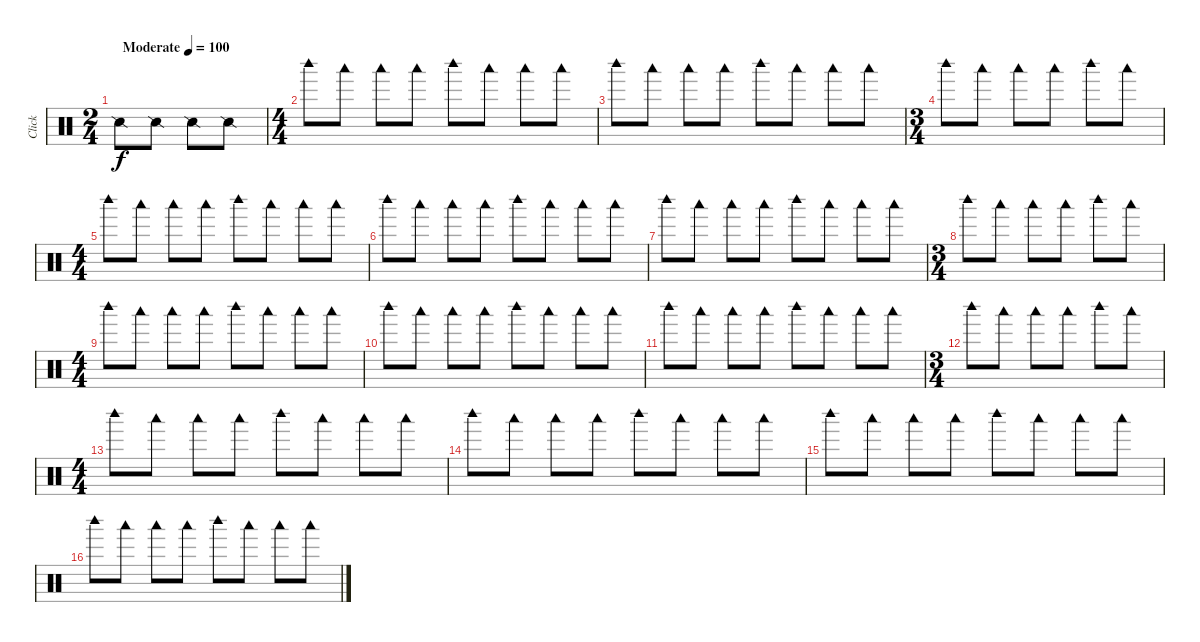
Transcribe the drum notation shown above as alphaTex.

\track ("Click" "Click") {mute instrument percussion}
\staff {score}
\articulation defaults
\ts (2 4)
\tempo (100 "Moderate")
\clef neutral
\ks c "Snare (side stick) 2".8{dy f} "Snare (side stick) 2".8 "Snare (side stick) 2".8 "Snare (side stick) 2".8
|
\ts (4 4)
"Woodblock high (hit)".8 "Woodblock low (hit)".8 "Woodblock low (hit)".8 "Woodblock low (hit)".8 "Woodblock high (hit)".8 "Woodblock low (hit)".8 "Woodblock low (hit)".8 "Woodblock low (hit)".8 |
"Woodblock high (hit)".8 "Woodblock low (hit)".8 "Woodblock low (hit)".8 "Woodblock low (hit)".8 "Woodblock high (hit)".8 "Woodblock low (hit)".8 "Woodblock low (hit)".8 "Woodblock low (hit)".8 |
\ts (3 4)
"Woodblock high (hit)".8 "Woodblock low (hit)".8 "Woodblock low (hit)".8 "Woodblock low (hit)".8 "Woodblock high (hit)".8 "Woodblock low (hit)".8 |
\ts (4 4)
"Woodblock high (hit)".8 "Woodblock low (hit)".8 "Woodblock low (hit)".8 "Woodblock low (hit)".8 "Woodblock high (hit)".8 "Woodblock low (hit)".8 "Woodblock low (hit)".8 "Woodblock low (hit)".8 |
"Woodblock high (hit)".8 "Woodblock low (hit)".8 "Woodblock low (hit)".8 "Woodblock low (hit)".8 "Woodblock high (hit)".8 "Woodblock low (hit)".8 "Woodblock low (hit)".8 "Woodblock low (hit)".8 |
"Woodblock high (hit)".8 "Woodblock low (hit)".8 "Woodblock low (hit)".8 "Woodblock low (hit)".8 "Woodblock high (hit)".8 "Woodblock low (hit)".8 "Woodblock low (hit)".8 "Woodblock low (hit)".8 |
\ts (3 4)
"Woodblock high (hit)".8 "Woodblock low (hit)".8 "Woodblock low (hit)".8 "Woodblock low (hit)".8 "Woodblock high (hit)".8 "Woodblock low (hit)".8 |
\ts (4 4)
"Woodblock high (hit)".8 "Woodblock low (hit)".8 "Woodblock low (hit)".8 "Woodblock low (hit)".8 "Woodblock high (hit)".8 "Woodblock low (hit)".8 "Woodblock low (hit)".8 "Woodblock low (hit)".8 |
"Woodblock high (hit)".8 "Woodblock low (hit)".8 "Woodblock low (hit)".8 "Woodblock low (hit)".8 "Woodblock high (hit)".8 "Woodblock low (hit)".8 "Woodblock low (hit)".8 "Woodblock low (hit)".8 |
"Woodblock high (hit)".8 "Woodblock low (hit)".8 "Woodblock low (hit)".8 "Woodblock low (hit)".8 "Woodblock high (hit)".8 "Woodblock low (hit)".8 "Woodblock low (hit)".8 "Woodblock low (hit)".8 |
\ts (3 4)
"Woodblock high (hit)".8 "Woodblock low (hit)".8 "Woodblock low (hit)".8 "Woodblock low (hit)".8 "Woodblock high (hit)".8 "Woodblock low (hit)".8 |
\ts (4 4)
"Woodblock high (hit)".8 "Woodblock low (hit)".8 "Woodblock low (hit)".8 "Woodblock low (hit)".8 "Woodblock high (hit)".8 "Woodblock low (hit)".8 "Woodblock low (hit)".8 "Woodblock low (hit)".8 |
"Woodblock high (hit)".8 "Woodblock low (hit)".8 "Woodblock low (hit)".8 "Woodblock low (hit)".8 "Woodblock high (hit)".8 "Woodblock low (hit)".8 "Woodblock low (hit)".8 "Woodblock low (hit)".8 |
"Woodblock high (hit)".8 "Woodblock low (hit)".8 "Woodblock low (hit)".8 "Woodblock low (hit)".8 "Woodblock high (hit)".8 "Woodblock low (hit)".8 "Woodblock low (hit)".8 "Woodblock low (hit)".8 |
"Woodblock high (hit)".8 "Woodblock low (hit)".8 "Woodblock low (hit)".8 "Woodblock low (hit)".8 "Woodblock high (hit)".8 "Woodblock low (hit)".8 "Woodblock low (hit)".8 "Woodblock low (hit)".8
